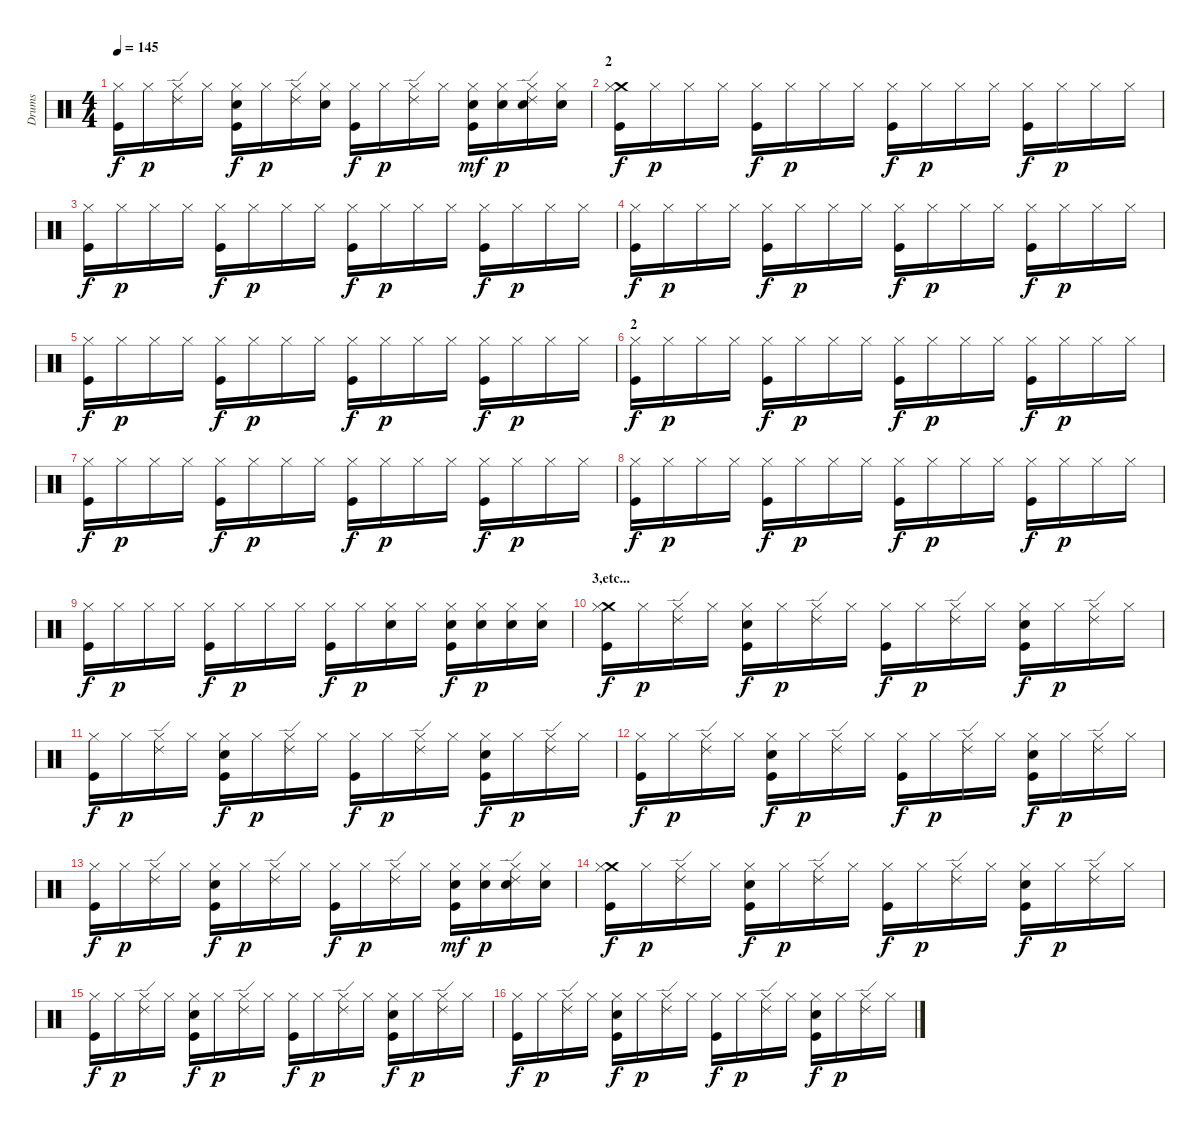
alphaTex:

\track ("Drums" "Drums") {instrument percussion}
\staff {score}
\articulation defaults
\ts (4 4)
\tempo 145
\clef neutral
\ks c
("Kick (hit)" "Hi-Hat (closed)").16{dy f} "Hi-Hat (closed)".16{dy p} ("Ride (edge) 2" "Hi-Hat (closed)").16 "Hi-Hat (closed)".16 ("Electric Snare (hit)" "Kick (hit)" "Hi-Hat (closed)").16{dy f} "Hi-Hat (closed)".16{dy p} ("Ride (edge) 2" "Hi-Hat (closed)").16 ("Electric Snare (hit)" "Hi-Hat (closed)").16 ("Kick (hit)" "Hi-Hat (closed)").16{dy f} "Hi-Hat (closed)".16{dy p} ("Ride (edge) 2" "Hi-Hat (closed)").16 "Hi-Hat (closed)".16 ("Electric Snare (hit)" "Kick (hit)" "Hi-Hat (closed)").16{dy mf} ("Electric Snare (hit)" "Hi-Hat (closed)").16{dy p} ("Electric Snare (hit)" "Ride (edge) 2" "Hi-Hat (closed)").16 ("Electric Snare (hit)" "Hi-Hat (closed)").16 |
\section ("" "2")
("Crash medium (hit)" "Kick (hit)" "Hi-Hat (closed)").16{dy f} "Hi-Hat (closed)".16{dy p} "Hi-Hat (closed)".16 "Hi-Hat (closed)".16 ("Kick (hit)" "Hi-Hat (closed)").16{dy f} "Hi-Hat (closed)".16{dy p} "Hi-Hat (closed)".16 "Hi-Hat (closed)".16 ("Kick (hit)" "Hi-Hat (closed)").16{dy f} "Hi-Hat (closed)".16{dy p} "Hi-Hat (closed)".16 "Hi-Hat (closed)".16 ("Kick (hit)" "Hi-Hat (closed)").16{dy f} "Hi-Hat (closed)".16{dy p} "Hi-Hat (closed)".16 "Hi-Hat (closed)".16 |
("Kick (hit)" "Hi-Hat (closed)").16{dy f} "Hi-Hat (closed)".16{dy p} "Hi-Hat (closed)".16 "Hi-Hat (closed)".16 ("Kick (hit)" "Hi-Hat (closed)").16{dy f} "Hi-Hat (closed)".16{dy p} "Hi-Hat (closed)".16 "Hi-Hat (closed)".16 ("Kick (hit)" "Hi-Hat (closed)").16{dy f} "Hi-Hat (closed)".16{dy p} "Hi-Hat (closed)".16 "Hi-Hat (closed)".16 ("Kick (hit)" "Hi-Hat (closed)").16{dy f} "Hi-Hat (closed)".16{dy p} "Hi-Hat (closed)".16 "Hi-Hat (closed)".16 |
("Kick (hit)" "Hi-Hat (closed)").16{dy f} "Hi-Hat (closed)".16{dy p} "Hi-Hat (closed)".16 "Hi-Hat (closed)".16 ("Kick (hit)" "Hi-Hat (closed)").16{dy f} "Hi-Hat (closed)".16{dy p} "Hi-Hat (closed)".16 "Hi-Hat (closed)".16 ("Kick (hit)" "Hi-Hat (closed)").16{dy f} "Hi-Hat (closed)".16{dy p} "Hi-Hat (closed)".16 "Hi-Hat (closed)".16 ("Kick (hit)" "Hi-Hat (closed)").16{dy f} "Hi-Hat (closed)".16{dy p} "Hi-Hat (closed)".16 "Hi-Hat (closed)".16 |
("Kick (hit)" "Hi-Hat (closed)").16{dy f} "Hi-Hat (closed)".16{dy p} "Hi-Hat (closed)".16 "Hi-Hat (closed)".16 ("Kick (hit)" "Hi-Hat (closed)").16{dy f} "Hi-Hat (closed)".16{dy p} "Hi-Hat (closed)".16 "Hi-Hat (closed)".16 ("Kick (hit)" "Hi-Hat (closed)").16{dy f} "Hi-Hat (closed)".16{dy p} "Hi-Hat (closed)".16 "Hi-Hat (closed)".16 ("Kick (hit)" "Hi-Hat (closed)").16{dy f} "Hi-Hat (closed)".16{dy p} "Hi-Hat (closed)".16 "Hi-Hat (closed)".16 |
\section ("" "2")
("Kick (hit)" "Hi-Hat (closed)").16{dy f} "Hi-Hat (closed)".16{dy p} "Hi-Hat (closed)".16 "Hi-Hat (closed)".16 ("Kick (hit)" "Hi-Hat (closed)").16{dy f} "Hi-Hat (closed)".16{dy p} "Hi-Hat (closed)".16 "Hi-Hat (closed)".16 ("Kick (hit)" "Hi-Hat (closed)").16{dy f} "Hi-Hat (closed)".16{dy p} "Hi-Hat (closed)".16 "Hi-Hat (closed)".16 ("Kick (hit)" "Hi-Hat (closed)").16{dy f} "Hi-Hat (closed)".16{dy p} "Hi-Hat (closed)".16 "Hi-Hat (closed)".16 |
("Kick (hit)" "Hi-Hat (closed)").16{dy f} "Hi-Hat (closed)".16{dy p} "Hi-Hat (closed)".16 "Hi-Hat (closed)".16 ("Kick (hit)" "Hi-Hat (closed)").16{dy f} "Hi-Hat (closed)".16{dy p} "Hi-Hat (closed)".16 "Hi-Hat (closed)".16 ("Kick (hit)" "Hi-Hat (closed)").16{dy f} "Hi-Hat (closed)".16{dy p} "Hi-Hat (closed)".16 "Hi-Hat (closed)".16 ("Kick (hit)" "Hi-Hat (closed)").16{dy f} "Hi-Hat (closed)".16{dy p} "Hi-Hat (closed)".16 "Hi-Hat (closed)".16 |
("Kick (hit)" "Hi-Hat (closed)").16{dy f} "Hi-Hat (closed)".16{dy p} "Hi-Hat (closed)".16 "Hi-Hat (closed)".16 ("Kick (hit)" "Hi-Hat (closed)").16{dy f} "Hi-Hat (closed)".16{dy p} "Hi-Hat (closed)".16 "Hi-Hat (closed)".16 ("Kick (hit)" "Hi-Hat (closed)").16{dy f} "Hi-Hat (closed)".16{dy p} "Hi-Hat (closed)".16 "Hi-Hat (closed)".16 ("Kick (hit)" "Hi-Hat (closed)").16{dy f} "Hi-Hat (closed)".16{dy p} "Hi-Hat (closed)".16 "Hi-Hat (closed)".16 |
("Kick (hit)" "Hi-Hat (closed)").16{dy f} "Hi-Hat (closed)".16{dy p} "Hi-Hat (closed)".16 "Hi-Hat (closed)".16 ("Kick (hit)" "Hi-Hat (closed)").16{dy f} "Hi-Hat (closed)".16{dy p} "Hi-Hat (closed)".16 "Hi-Hat (closed)".16 ("Kick (hit)" "Hi-Hat (closed)").16{dy f} "Hi-Hat (closed)".16{dy p} ("Hi-Hat (closed)" "Electric Snare (hit)").16 "Hi-Hat (closed)".16 ("Kick (hit)" "Hi-Hat (closed)" "Electric Snare (hit)").16{dy f} ("Hi-Hat (closed)" "Electric Snare (hit)").16{dy p} ("Hi-Hat (closed)" "Electric Snare (hit)").16 ("Hi-Hat (closed)" "Electric Snare (hit)").16 |
\section ("" "3,etc...")
("Crash medium (hit)" "Kick (hit)" "Hi-Hat (closed)").16{dy f} "Hi-Hat (closed)".16{dy p} ("Ride (edge) 2" "Hi-Hat (closed)").16 "Hi-Hat (closed)".16 ("Electric Snare (hit)" "Kick (hit)" "Hi-Hat (closed)").16{dy f} "Hi-Hat (closed)".16{dy p} ("Ride (edge) 2" "Hi-Hat (closed)").16 "Hi-Hat (closed)".16 ("Kick (hit)" "Hi-Hat (closed)").16{dy f} "Hi-Hat (closed)".16{dy p} ("Ride (edge) 2" "Hi-Hat (closed)").16 "Hi-Hat (closed)".16 ("Electric Snare (hit)" "Kick (hit)" "Hi-Hat (closed)").16{dy f} "Hi-Hat (closed)".16{dy p} ("Ride (edge) 2" "Hi-Hat (closed)").16 "Hi-Hat (closed)".16 |
("Kick (hit)" "Hi-Hat (closed)").16{dy f} "Hi-Hat (closed)".16{dy p} ("Ride (edge) 2" "Hi-Hat (closed)").16 "Hi-Hat (closed)".16 ("Electric Snare (hit)" "Kick (hit)" "Hi-Hat (closed)").16{dy f} "Hi-Hat (closed)".16{dy p} ("Ride (edge) 2" "Hi-Hat (closed)").16 "Hi-Hat (closed)".16 ("Kick (hit)" "Hi-Hat (closed)").16{dy f} "Hi-Hat (closed)".16{dy p} ("Ride (edge) 2" "Hi-Hat (closed)").16 "Hi-Hat (closed)".16 ("Electric Snare (hit)" "Kick (hit)" "Hi-Hat (closed)").16{dy f} "Hi-Hat (closed)".16{dy p} ("Ride (edge) 2" "Hi-Hat (closed)").16 "Hi-Hat (closed)".16 |
("Kick (hit)" "Hi-Hat (closed)").16{dy f} "Hi-Hat (closed)".16{dy p} ("Ride (edge) 2" "Hi-Hat (closed)").16 "Hi-Hat (closed)".16 ("Electric Snare (hit)" "Kick (hit)" "Hi-Hat (closed)").16{dy f} "Hi-Hat (closed)".16{dy p} ("Ride (edge) 2" "Hi-Hat (closed)").16 "Hi-Hat (closed)".16 ("Kick (hit)" "Hi-Hat (closed)").16{dy f} "Hi-Hat (closed)".16{dy p} ("Ride (edge) 2" "Hi-Hat (closed)").16 "Hi-Hat (closed)".16 ("Electric Snare (hit)" "Kick (hit)" "Hi-Hat (closed)").16{dy f} "Hi-Hat (closed)".16{dy p} ("Ride (edge) 2" "Hi-Hat (closed)").16 "Hi-Hat (closed)".16 |
("Kick (hit)" "Hi-Hat (closed)").16{dy f} "Hi-Hat (closed)".16{dy p} ("Ride (edge) 2" "Hi-Hat (closed)").16 "Hi-Hat (closed)".16 ("Electric Snare (hit)" "Kick (hit)" "Hi-Hat (closed)").16{dy f} "Hi-Hat (closed)".16{dy p} ("Ride (edge) 2" "Hi-Hat (closed)").16 "Hi-Hat (closed)".16 ("Kick (hit)" "Hi-Hat (closed)").16{dy f} "Hi-Hat (closed)".16{dy p} ("Ride (edge) 2" "Hi-Hat (closed)").16 "Hi-Hat (closed)".16 ("Electric Snare (hit)" "Kick (hit)" "Hi-Hat (closed)").16{dy mf} ("Electric Snare (hit)" "Hi-Hat (closed)").16{dy p} ("Electric Snare (hit)" "Ride (edge) 2" "Hi-Hat (closed)").16 ("Electric Snare (hit)" "Hi-Hat (closed)").16 |
("Crash medium (hit)" "Kick (hit)" "Hi-Hat (closed)").16{dy f} "Hi-Hat (closed)".16{dy p} ("Ride (edge) 2" "Hi-Hat (closed)").16 "Hi-Hat (closed)".16 ("Electric Snare (hit)" "Kick (hit)" "Hi-Hat (closed)").16{dy f} "Hi-Hat (closed)".16{dy p} ("Ride (edge) 2" "Hi-Hat (closed)").16 "Hi-Hat (closed)".16 ("Kick (hit)" "Hi-Hat (closed)").16{dy f} "Hi-Hat (closed)".16{dy p} ("Ride (edge) 2" "Hi-Hat (closed)").16 "Hi-Hat (closed)".16 ("Electric Snare (hit)" "Kick (hit)" "Hi-Hat (closed)").16{dy f} "Hi-Hat (closed)".16{dy p} ("Ride (edge) 2" "Hi-Hat (closed)").16 "Hi-Hat (closed)".16 |
("Kick (hit)" "Hi-Hat (closed)").16{dy f} "Hi-Hat (closed)".16{dy p} ("Ride (edge) 2" "Hi-Hat (closed)").16 "Hi-Hat (closed)".16 ("Electric Snare (hit)" "Kick (hit)" "Hi-Hat (closed)").16{dy f} "Hi-Hat (closed)".16{dy p} ("Ride (edge) 2" "Hi-Hat (closed)").16 "Hi-Hat (closed)".16 ("Kick (hit)" "Hi-Hat (closed)").16{dy f} "Hi-Hat (closed)".16{dy p} ("Ride (edge) 2" "Hi-Hat (closed)").16 "Hi-Hat (closed)".16 ("Electric Snare (hit)" "Kick (hit)" "Hi-Hat (closed)").16{dy f} "Hi-Hat (closed)".16{dy p} ("Ride (edge) 2" "Hi-Hat (closed)").16 "Hi-Hat (closed)".16 |
("Kick (hit)" "Hi-Hat (closed)").16{dy f} "Hi-Hat (closed)".16{dy p} ("Ride (edge) 2" "Hi-Hat (closed)").16 "Hi-Hat (closed)".16 ("Electric Snare (hit)" "Kick (hit)" "Hi-Hat (closed)").16{dy f} "Hi-Hat (closed)".16{dy p} ("Ride (edge) 2" "Hi-Hat (closed)").16 "Hi-Hat (closed)".16 ("Kick (hit)" "Hi-Hat (closed)").16{dy f} "Hi-Hat (closed)".16{dy p} ("Ride (edge) 2" "Hi-Hat (closed)").16 "Hi-Hat (closed)".16 ("Electric Snare (hit)" "Kick (hit)" "Hi-Hat (closed)").16{dy f} "Hi-Hat (closed)".16{dy p} ("Ride (edge) 2" "Hi-Hat (closed)").16 "Hi-Hat (closed)".16
